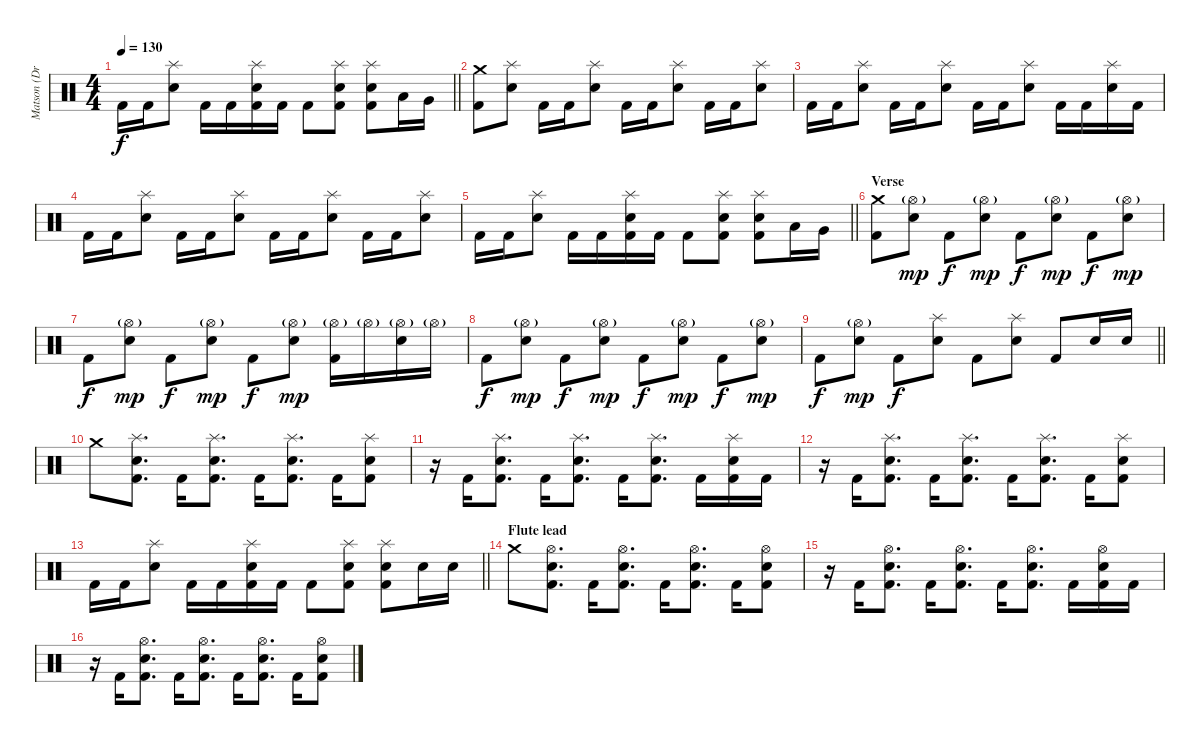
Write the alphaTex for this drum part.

\track ("Matson (Drums)" "Matson (Dr") {instrument percussion}
\staff {score}
\articulation defaults
\ts (4 4)
\tempo 130
\clef neutral
\barLineRight lightlight
\ks c "Kick (hit) 2".16{dy f} "Kick (hit) 2".16
("Snare (hit) 2" "Splash (hit)").8 "Kick (hit) 2".16 "Kick (hit) 2".16 ("Kick (hit) 2" "Snare (hit) 2" "Splash (hit)").16 "Kick (hit) 2".16 "Kick (hit) 2".8 ("Kick (hit) 2" "Snare (hit) 2" "Splash (hit)").8 ("Kick (hit) 2" "Snare (hit) 2" "Splash (hit)").8 "Low Tom (hit)".16 "Very Low Tom (hit)".16 |
\section ("" "")
("Kick (hit) 2" "Crash medium (hit)").8 ("Snare (hit) 2" "Splash (hit)").8 "Kick (hit) 2".16 "Kick (hit) 2".16 ("Snare (hit) 2" "Splash (hit)").8 "Kick (hit) 2".16 "Kick (hit) 2".16 ("Snare (hit) 2" "Splash (hit)").8 "Kick (hit) 2".16 "Kick (hit) 2".16 ("Snare (hit) 2" "Splash (hit)").8 |
"Kick (hit) 2".16 "Kick (hit) 2".16 ("Snare (hit) 2" "Splash (hit)").8 "Kick (hit) 2".16 "Kick (hit) 2".16 ("Snare (hit) 2" "Splash (hit)").8 "Kick (hit) 2".16 "Kick (hit) 2".16 ("Snare (hit) 2" "Splash (hit)").8 "Kick (hit) 2".16 "Kick (hit) 2".16 ("Snare (hit) 2" "Splash (hit)").16 "Kick (hit) 2".16 |
"Kick (hit) 2".16 "Kick (hit) 2".16 ("Snare (hit) 2" "Splash (hit)").8 "Kick (hit) 2".16 "Kick (hit) 2".16 ("Snare (hit) 2" "Splash (hit)").8 "Kick (hit) 2".16 "Kick (hit) 2".16 ("Snare (hit) 2" "Splash (hit)").8 "Kick (hit) 2".16 "Kick (hit) 2".16 ("Snare (hit) 2" "Splash (hit)").8 |
\barLineRight lightlight "Kick (hit) 2".16 "Kick (hit) 2".16
("Snare (hit) 2" "Splash (hit)").8 "Kick (hit) 2".16 "Kick (hit) 2".16 ("Kick (hit) 2" "Snare (hit) 2" "Splash (hit)").16 "Kick (hit) 2".16 "Kick (hit) 2".8 ("Kick (hit) 2" "Snare (hit) 2" "Splash (hit)").8 ("Kick (hit) 2" "Snare (hit) 2" "Splash (hit)").8 "Low Tom (hit)".16 "Very Low Tom (hit)".16 |
\section ("" "Verse")
("Kick (hit) 2" "Crash medium (hit)").8 ("Snare (hit) 2" "Hi-Hat (open)"{g}).8{dy mp} "Kick (hit) 2".8{dy f} ("Snare (hit) 2" "Hi-Hat (open)"{g}).8{dy mp} "Kick (hit) 2".8{dy f} ("Snare (hit) 2" "Hi-Hat (open)"{g}).8{dy mp} "Kick (hit) 2".8{dy f} ("Snare (hit) 2" "Hi-Hat (open)"{g}).8{dy mp} |
"Kick (hit) 2".8{dy f} ("Snare (hit) 2" "Hi-Hat (open)"{g}).8{dy mp} "Kick (hit) 2".8{dy f} ("Snare (hit) 2" "Hi-Hat (open)"{g}).8{dy mp} "Kick (hit) 2".8{dy f} ("Snare (hit) 2" "Hi-Hat (open)"{g}).8{dy mp} ("Kick (hit) 2" "Hi-Hat (open)"{g}).16 "Hi-Hat (open)"{g}.16 ("Snare (hit) 2" "Hi-Hat (open)"{g}).16 "Hi-Hat (open)"{g}.16 |
"Kick (hit) 2".8{dy f} ("Snare (hit) 2" "Hi-Hat (open)"{g}).8{dy mp} "Kick (hit) 2".8{dy f} ("Snare (hit) 2" "Hi-Hat (open)"{g}).8{dy mp} "Kick (hit) 2".8{dy f} ("Snare (hit) 2" "Hi-Hat (open)"{g}).8{dy mp} "Kick (hit) 2".8{dy f} ("Snare (hit) 2" "Hi-Hat (open)"{g}).8{dy mp} |
\barLineRight lightlight "Kick (hit) 2".8{dy f}
("Snare (hit) 2" "Hi-Hat (open)"{g}).8{dy mp} "Kick (hit) 2".8{dy f} ("Snare (hit) 2" "Splash (hit)").8 "Kick (hit) 2".8 ("Snare (hit) 2" "Splash (hit)").8 "Kick (hit) 2".8 "Snare (hit) 2".16 "Snare (hit) 2".16 |
\section ("" "")
"Crash medium (hit)".8 ("Kick (hit) 2" "Snare (hit) 2" "Splash (hit)").8{d} "Kick (hit) 2".16 ("Kick (hit) 2" "Snare (hit) 2" "Splash (hit)").8{d} "Kick (hit) 2".16 ("Kick (hit) 2" "Snare (hit) 2" "Splash (hit)").8{d} "Kick (hit) 2".16 ("Kick (hit) 2" "Snare (hit) 2" "Splash (hit)").8 |
r.16 "Kick (hit) 2".16 ("Kick (hit) 2" "Snare (hit) 2" "Splash (hit)").8{d} "Kick (hit) 2".16 ("Kick (hit) 2" "Snare (hit) 2" "Splash (hit)").8{d} "Kick (hit) 2".16 ("Kick (hit) 2" "Snare (hit) 2" "Splash (hit)").8{d} "Kick (hit) 2".16 ("Kick (hit) 2" "Snare (hit) 2" "Splash (hit)").16 "Kick (hit) 2".16 |
r.16 "Kick (hit) 2".16 ("Kick (hit) 2" "Snare (hit) 2" "Splash (hit)").8{d} "Kick (hit) 2".16 ("Kick (hit) 2" "Snare (hit) 2" "Splash (hit)").8{d} "Kick (hit) 2".16 ("Kick (hit) 2" "Snare (hit) 2" "Splash (hit)").8{d} "Kick (hit) 2".16 ("Kick (hit) 2" "Snare (hit) 2" "Splash (hit)").8 |
\barLineRight lightlight "Kick (hit) 2".16 "Kick (hit) 2".16
("Snare (hit) 2" "Splash (hit)").8 "Kick (hit) 2".16 "Kick (hit) 2".16 ("Kick (hit) 2" "Snare (hit) 2" "Splash (hit)").16 "Kick (hit) 2".16 "Kick (hit) 2".8 ("Kick (hit) 2" "Snare (hit) 2" "Splash (hit)").8 ("Kick (hit) 2" "Snare (hit) 2" "Splash (hit)").8 "Snare (hit) 2".16 "Snare (hit) 2".16 |
\section ("" "Flute lead")
"Crash medium (hit)".8 ("Kick (hit) 2" "Snare (hit) 2" "Hi-Hat (open)").8{d} "Kick (hit) 2".16 ("Kick (hit) 2" "Snare (hit) 2" "Hi-Hat (open)").8{d} "Kick (hit) 2".16 ("Kick (hit) 2" "Snare (hit) 2" "Hi-Hat (open)").8{d} "Kick (hit) 2".16 ("Kick (hit) 2" "Snare (hit) 2" "Hi-Hat (open)").8 |
r.16 "Kick (hit) 2".16 ("Kick (hit) 2" "Snare (hit) 2" "Hi-Hat (open)").8{d} "Kick (hit) 2".16 ("Kick (hit) 2" "Snare (hit) 2" "Hi-Hat (open)").8{d} "Kick (hit) 2".16 ("Kick (hit) 2" "Snare (hit) 2" "Hi-Hat (open)").8{d} "Kick (hit) 2".16 ("Kick (hit) 2" "Snare (hit) 2" "Hi-Hat (open)").16 "Kick (hit) 2".16 |
r.16 "Kick (hit) 2".16 ("Kick (hit) 2" "Snare (hit) 2" "Hi-Hat (open)").8{d} "Kick (hit) 2".16 ("Kick (hit) 2" "Snare (hit) 2" "Hi-Hat (open)").8{d} "Kick (hit) 2".16 ("Kick (hit) 2" "Snare (hit) 2" "Hi-Hat (open)").8{d} "Kick (hit) 2".16 ("Kick (hit) 2" "Snare (hit) 2" "Hi-Hat (open)").8
